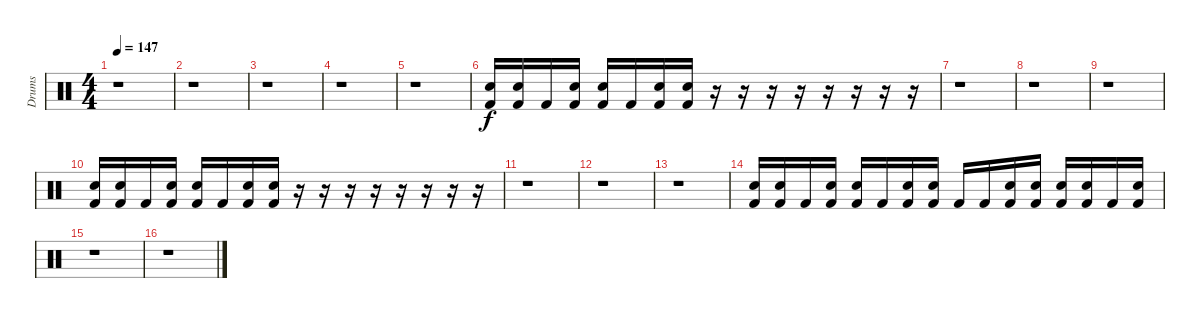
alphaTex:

\track ("Drums" "Drums") {instrument percussion}
\staff {score}
\articulation defaults
\ts (4 4)
\tempo 147
\clef neutral
\ks c
r.1{dy f} |
r.1 |
r.1 |
r.1 |
r.1 |
("Electric Snare (hit)" "Kick (hit) 2").16 ("Electric Snare (hit)" "Kick (hit) 2").16 "Kick (hit) 2".16 ("Electric Snare (hit)" "Kick (hit) 2").16 ("Electric Snare (hit)" "Kick (hit) 2").16 "Kick (hit) 2".16 ("Electric Snare (hit)" "Kick (hit) 2").16 ("Electric Snare (hit)" "Kick (hit) 2").16 r.16 r.16 r.16 r.16 r.16 r.16 r.16 r.16 |
r.1 |
r.1 |
r.1 |
("Electric Snare (hit)" "Kick (hit) 2").16 ("Electric Snare (hit)" "Kick (hit) 2").16 "Kick (hit) 2".16 ("Electric Snare (hit)" "Kick (hit) 2").16 ("Electric Snare (hit)" "Kick (hit) 2").16 "Kick (hit) 2".16 ("Electric Snare (hit)" "Kick (hit) 2").16 ("Electric Snare (hit)" "Kick (hit) 2").16 r.16 r.16 r.16 r.16 r.16 r.16 r.16 r.16 |
r.1 |
r.1 |
r.1 |
("Electric Snare (hit)" "Kick (hit) 2").16 ("Electric Snare (hit)" "Kick (hit) 2").16 "Kick (hit) 2".16 ("Electric Snare (hit)" "Kick (hit) 2").16 ("Electric Snare (hit)" "Kick (hit) 2").16 "Kick (hit) 2".16 ("Electric Snare (hit)" "Kick (hit) 2").16 ("Electric Snare (hit)" "Kick (hit) 2").16 "Kick (hit) 2".16 "Kick (hit) 2".16 ("Electric Snare (hit)" "Kick (hit) 2").16 ("Electric Snare (hit)" "Kick (hit) 2").16 ("Electric Snare (hit)" "Kick (hit) 2").16 ("Electric Snare (hit)" "Kick (hit) 2").16 "Kick (hit) 2".16 ("Electric Snare (hit)" "Kick (hit) 2").16 |
r.1 |
r.1
